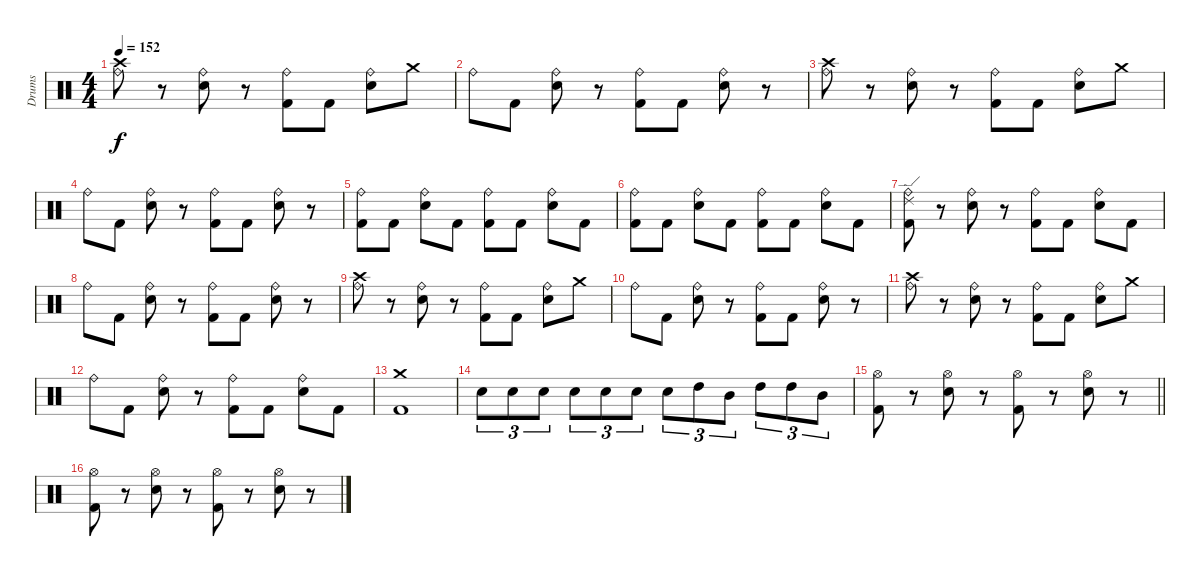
\track ("Drums" "Drums") {instrument percussion}
\staff {score}
\articulation defaults
\ts (4 4)
\tempo 152
\clef neutral
\ks c
("Crash high (hit)" "Ride (bell)").8{dy f} r.8 ("Snare (hit) 2" "Ride (bell)").8 r.8 ("Kick (hit) 2" "Ride (bell)").8 "Kick (hit) 2".8 ("Snare (hit) 2" "Ride (bell)").8 "Crash medium (hit)".8 |
"Ride (bell)".8 "Kick (hit) 2".8 ("Snare (hit) 2" "Ride (bell)").8 r.8 ("Kick (hit) 2" "Ride (bell)").8 "Kick (hit) 2".8 ("Snare (hit) 2" "Ride (bell)").8 r.8 |
("Crash high (hit)" "Ride (bell)").8 r.8 ("Snare (hit) 2" "Ride (bell)").8 r.8 ("Kick (hit) 2" "Ride (bell)").8 "Kick (hit) 2".8 ("Snare (hit) 2" "Ride (bell)").8 "Crash medium (hit)".8 |
"Ride (bell)".8 "Kick (hit) 2".8 ("Snare (hit) 2" "Ride (bell)").8 r.8 ("Kick (hit) 2" "Ride (bell)").8 "Kick (hit) 2".8 ("Snare (hit) 2" "Ride (bell)").8 r.8 |
("Kick (hit) 2" "Ride (bell)").8 "Kick (hit) 2".8 ("Snare (hit) 2" "Ride (bell)").8 "Kick (hit) 2".8 ("Kick (hit) 2" "Ride (bell)").8 "Kick (hit) 2".8 ("Snare (hit) 2" "Ride (bell)").8 "Kick (hit) 2".8 |
("Kick (hit) 2" "Ride (bell)").8 "Kick (hit) 2".8 ("Snare (hit) 2" "Ride (bell)").8 "Kick (hit) 2".8 ("Kick (hit) 2" "Ride (bell)").8 "Kick (hit) 2".8 ("Snare (hit) 2" "Ride (bell)").8 "Kick (hit) 2".8 |
("Ride (edge) 2" "Kick (hit) 2" "Ride (bell)").8 r.8 ("Snare (hit) 2" "Ride (bell)").8 r.8 ("Kick (hit) 2" "Ride (bell)").8 "Kick (hit) 2".8 ("Snare (hit) 2" "Ride (bell)").8 "Kick (hit) 2".8 |
"Ride (bell)".8 "Kick (hit) 2".8 ("Snare (hit) 2" "Ride (bell)").8 r.8 ("Kick (hit) 2" "Ride (bell)").8 "Kick (hit) 2".8 ("Snare (hit) 2" "Ride (bell)").8 r.8 |
("Crash high (hit)" "Ride (bell)").8 r.8 ("Snare (hit) 2" "Ride (bell)").8 r.8 ("Kick (hit) 2" "Ride (bell)").8 "Kick (hit) 2".8 ("Snare (hit) 2" "Ride (bell)").8 "Crash medium (hit)".8 |
"Ride (bell)".8 "Kick (hit) 2".8 ("Snare (hit) 2" "Ride (bell)").8 r.8 ("Kick (hit) 2" "Ride (bell)").8 "Kick (hit) 2".8 ("Snare (hit) 2" "Ride (bell)").8 r.8 |
("Crash high (hit)" "Ride (bell)").8 r.8 ("Snare (hit) 2" "Ride (bell)").8 r.8 ("Kick (hit) 2" "Ride (bell)").8 "Kick (hit) 2".8 ("Snare (hit) 2" "Ride (bell)").8 "Crash medium (hit)".8 |
"Ride (bell)".8 "Kick (hit) 2".8 ("Snare (hit) 2" "Ride (bell)").8 r.8 ("Kick (hit) 2" "Ride (bell)").8 "Kick (hit) 2".8 ("Snare (hit) 2" "Ride (bell)").8 "Kick (hit) 2".8 |
("Kick (hit) 2" "Crash medium (hit)").1 |
"Snare (hit) 2".8{tu (3 2)} "Snare (hit) 2".8{tu (3 2)} "Snare (hit) 2".8{tu (3 2)} "Snare (hit) 2".8{tu (3 2)} "Snare (hit) 2".8{tu (3 2)} "Snare (hit) 2".8{tu (3 2)} "Snare (hit) 2".8{tu (3 2)} "High Tom (hit)".8{tu (3 2)} "Mid Tom (hit)".8{tu (3 2)} "High Tom (hit)".8{tu (3 2)} "High Tom (hit)".8{tu (3 2)} "Mid Tom (hit)".8{tu (3 2)} |
\barLineRight lightlight
("Hi-Hat (open)" "Kick (hit) 2").8 r.8 ("Hi-Hat (open)" "Snare (hit) 2").8 r.8 ("Hi-Hat (open)" "Kick (hit) 2").8 r.8 ("Hi-Hat (open)" "Snare (hit) 2").8 r.8 |
("Hi-Hat (open)" "Kick (hit) 2").8 r.8 ("Hi-Hat (open)" "Snare (hit) 2").8 r.8 ("Hi-Hat (open)" "Kick (hit) 2").8 r.8 ("Hi-Hat (open)" "Snare (hit) 2").8 r.8
